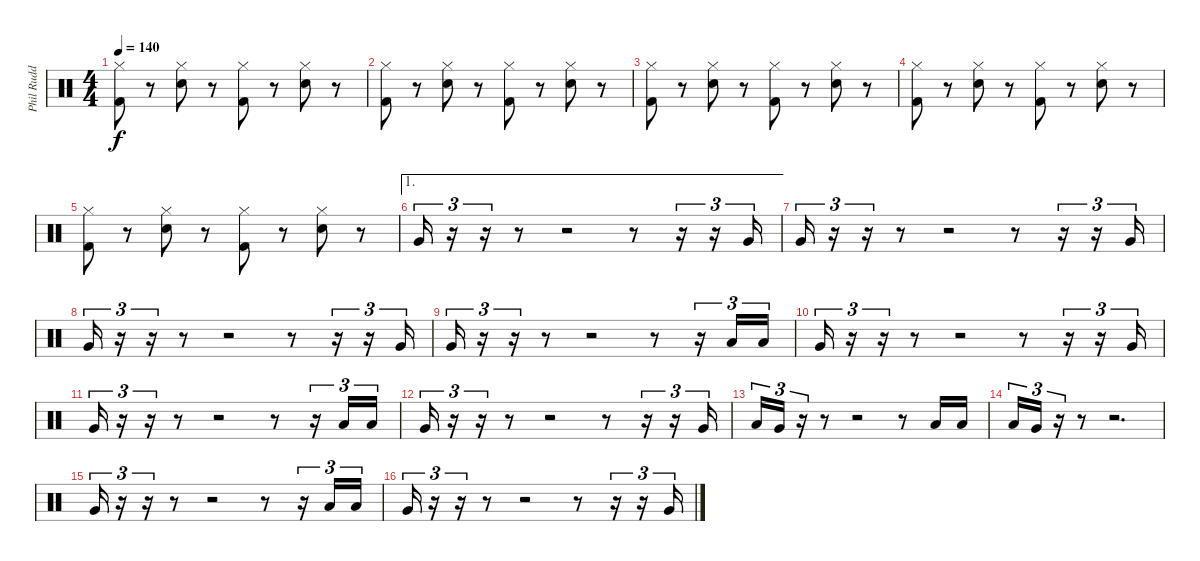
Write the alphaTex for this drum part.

\track ("Phil Rudd" "Phil Rudd") {instrument percussion}
\staff {score}
\articulation defaults
\ts (4 4)
\tempo 140
\clef neutral
\ks c
("Hi-Hat (closed)" "Kick (hit) 2").8{dy f} r.8 ("Hi-Hat (closed)" "Snare (hit) 2").8 r.8 ("Hi-Hat (closed)" "Kick (hit) 2").8 r.8 ("Hi-Hat (closed)" "Snare (hit) 2").8 r.8 |
("Hi-Hat (closed)" "Kick (hit) 2").8 r.8 ("Hi-Hat (closed)" "Snare (hit) 2").8 r.8 ("Hi-Hat (closed)" "Kick (hit) 2").8 r.8 ("Hi-Hat (closed)" "Snare (hit) 2").8 r.8 |
("Hi-Hat (closed)" "Kick (hit) 2").8 r.8 ("Hi-Hat (closed)" "Snare (hit) 2").8 r.8 ("Hi-Hat (closed)" "Kick (hit) 2").8 r.8 ("Hi-Hat (closed)" "Snare (hit) 2").8 r.8 |
("Hi-Hat (closed)" "Kick (hit) 2").8 r.8 ("Hi-Hat (closed)" "Snare (hit) 2").8 r.8 ("Hi-Hat (closed)" "Kick (hit) 2").8 r.8 ("Hi-Hat (closed)" "Snare (hit) 2").8 r.8 |
("Hi-Hat (closed)" "Kick (hit) 2").8 r.8 ("Hi-Hat (closed)" "Snare (hit) 2").8 r.8 ("Hi-Hat (closed)" "Kick (hit) 2").8 r.8 ("Hi-Hat (closed)" "Snare (hit) 2").8 r.8 |
\ae 1 "Very Low Tom (hit)".16{tu (3 2)}
r.16{tu (3 2)} r.16{tu (3 2)} r.8 r.2 r.8 r.16{tu (3 2)} r.16{tu (3 2)} "Very Low Tom (hit)".16{tu (3 2)} |
"Very Low Tom (hit)".16{tu (3 2)} r.16{tu (3 2)} r.16{tu (3 2)} r.8 r.2 r.8 r.16{tu (3 2)} r.16{tu (3 2)} "Very Low Tom (hit)".16{tu (3 2)} |
"Very Low Tom (hit)".16{tu (3 2)} r.16{tu (3 2)} r.16{tu (3 2)} r.8 r.2 r.8 r.16{tu (3 2)} r.16{tu (3 2)} "Very Low Tom (hit)".16{tu (3 2)} |
"Very Low Tom (hit)".16{tu (3 2)} r.16{tu (3 2)} r.16{tu (3 2)} r.8 r.2 r.8 r.16{tu (3 2)} "Low Tom (hit)".16{tu (3 2)} "Low Tom (hit)".16{tu (3 2)} |
"Very Low Tom (hit)".16{tu (3 2)} r.16{tu (3 2)} r.16{tu (3 2)} r.8 r.2 r.8 r.16{tu (3 2)} r.16{tu (3 2)} "Very Low Tom (hit)".16{tu (3 2)} |
"Very Low Tom (hit)".16{tu (3 2)} r.16{tu (3 2)} r.16{tu (3 2)} r.8 r.2 r.8 r.16{tu (3 2)} "Low Tom (hit)".16{tu (3 2)} "Low Tom (hit)".16{tu (3 2)} |
"Very Low Tom (hit)".16{tu (3 2)} r.16{tu (3 2)} r.16{tu (3 2)} r.8 r.2 r.8 r.16{tu (3 2)} r.16{tu (3 2)} "Very Low Tom (hit)".16{tu (3 2)} |
"Low Floor Tom (hit)".16{tu (3 2)} "Very Low Tom (hit)".16{tu (3 2)} r.16{tu (3 2)} r.8 r.2 r.8 "Low Tom (hit)".16 "Low Tom (hit)".16 |
"Low Floor Tom (hit)".16{tu (3 2)} "Very Low Tom (hit)".16{tu (3 2)} r.16{tu (3 2)} r.8 r.2{d} |
"Very Low Tom (hit)".16{tu (3 2)} r.16{tu (3 2)} r.16{tu (3 2)} r.8 r.2 r.8 r.16{tu (3 2)} "Low Tom (hit)".16{tu (3 2)} "Low Tom (hit)".16{tu (3 2)} |
"Very Low Tom (hit)".16{tu (3 2)} r.16{tu (3 2)} r.16{tu (3 2)} r.8 r.2 r.8 r.16{tu (3 2)} r.16{tu (3 2)} "Very Low Tom (hit)".16{tu (3 2)}
